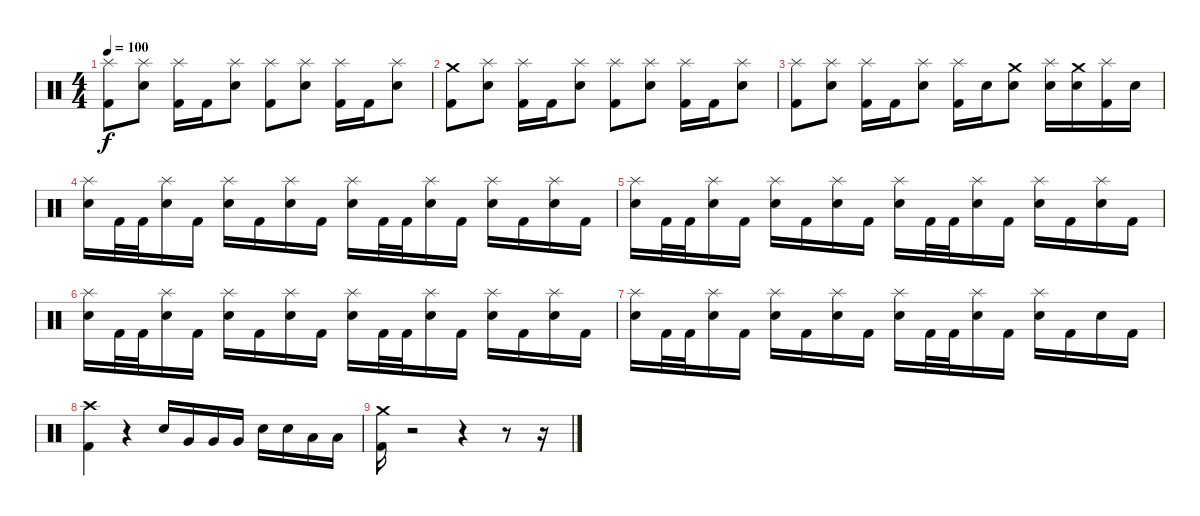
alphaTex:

\track "" {instrument percussion}
\staff {score}
\articulation defaults
\ts (4 4)
\tempo 100
\clef neutral
\ks c
("Splash (hit)" "Kick (hit) 2").8{dy f} ("Splash (hit)" "Snare (hit) 2").8 ("Splash (hit)" "Kick (hit) 2").16 "Kick (hit) 2".16 ("Splash (hit)" "Snare (hit) 2").8 ("Splash (hit)" "Kick (hit) 2").8 ("Splash (hit)" "Snare (hit) 2").8 ("Splash (hit)" "Kick (hit) 2").16 "Kick (hit) 2".16 ("Splash (hit)" "Snare (hit) 2").8 |
("Crash medium (hit)" "Kick (hit) 2").8 ("Splash (hit)" "Snare (hit) 2").8 ("Splash (hit)" "Kick (hit) 2").16 "Kick (hit) 2".16 ("Splash (hit)" "Snare (hit) 2").8 ("Splash (hit)" "Kick (hit) 2").8 ("Splash (hit)" "Snare (hit) 2").8 ("Splash (hit)" "Kick (hit) 2").16 "Kick (hit) 2".16 ("Splash (hit)" "Snare (hit) 2").8 |
("Splash (hit)" "Kick (hit) 2").8 ("Splash (hit)" "Snare (hit) 2").8 ("Splash (hit)" "Kick (hit) 2").16 "Kick (hit) 2".16 ("Splash (hit)" "Snare (hit) 2").8 ("Splash (hit)" "Kick (hit) 2").16 "Snare (hit) 2".16 ("Crash medium (hit)" "Snare (hit) 2").8 ("Splash (hit)" "Snare (hit) 2").16 ("Crash medium (hit)" "Snare (hit) 2").16 ("Splash (hit)" "Kick (hit) 2").16 "Snare (hit) 2".16 |
("Splash (hit)" "Snare (hit) 2").16 "Kick (hit) 2".32 "Kick (hit) 2".32 ("Splash (hit)" "Snare (hit) 2").16 "Kick (hit) 2".16 ("Splash (hit)" "Snare (hit) 2").16 "Kick (hit) 2".16 ("Splash (hit)" "Snare (hit) 2").16 "Kick (hit) 2".16 ("Splash (hit)" "Snare (hit) 2").16 "Kick (hit) 2".32 "Kick (hit) 2".32 ("Splash (hit)" "Snare (hit) 2").16 "Kick (hit) 2".16 ("Splash (hit)" "Snare (hit) 2").16 "Kick (hit) 2".16 ("Splash (hit)" "Snare (hit) 2").16 "Kick (hit) 2".16 |
("Splash (hit)" "Snare (hit) 2").16 "Kick (hit) 2".32 "Kick (hit) 2".32 ("Splash (hit)" "Snare (hit) 2").16 "Kick (hit) 2".16 ("Splash (hit)" "Snare (hit) 2").16 "Kick (hit) 2".16 ("Splash (hit)" "Snare (hit) 2").16 "Kick (hit) 2".16 ("Splash (hit)" "Snare (hit) 2").16 "Kick (hit) 2".32 "Kick (hit) 2".32 ("Splash (hit)" "Snare (hit) 2").16 "Kick (hit) 2".16 ("Splash (hit)" "Snare (hit) 2").16 "Kick (hit) 2".16 ("Splash (hit)" "Snare (hit) 2").16 "Kick (hit) 2".16 |
("Splash (hit)" "Snare (hit) 2").16 "Kick (hit) 2".32 "Kick (hit) 2".32 ("Splash (hit)" "Snare (hit) 2").16 "Kick (hit) 2".16 ("Splash (hit)" "Snare (hit) 2").16 "Kick (hit) 2".16 ("Splash (hit)" "Snare (hit) 2").16 "Kick (hit) 2".16 ("Splash (hit)" "Snare (hit) 2").16 "Kick (hit) 2".32 "Kick (hit) 2".32 ("Splash (hit)" "Snare (hit) 2").16 "Kick (hit) 2".16 ("Splash (hit)" "Snare (hit) 2").16 "Kick (hit) 2".16 ("Splash (hit)" "Snare (hit) 2").16 "Kick (hit) 2".16 |
("Splash (hit)" "Snare (hit) 2").16 "Kick (hit) 2".32 "Kick (hit) 2".32 ("Splash (hit)" "Snare (hit) 2").16 "Kick (hit) 2".16 ("Splash (hit)" "Snare (hit) 2").16 "Kick (hit) 2".16 ("Splash (hit)" "Snare (hit) 2").16 "Kick (hit) 2".16 ("Splash (hit)" "Snare (hit) 2").16 "Kick (hit) 2".32 "Kick (hit) 2".32 ("Splash (hit)" "Snare (hit) 2").16 "Kick (hit) 2".16 ("Splash (hit)" "Snare (hit) 2").16 "Kick (hit) 2".16 "Snare (hit) 2".16 "Kick (hit) 2".16 |
("Crash high (hit)" "Kick (hit) 2").4 r.4 "Electric Snare (hit)".16 "Very Low Tom (hit)".16 "Very Low Tom (hit)".16 "Very Low Tom (hit)".16 "Snare (hit) 2".16 "Snare (hit) 2".16 "Low Tom (hit)".16 "Low Tom (hit)".16 |
("Crash medium (hit)" "Kick (hit) 2").16 r.2 r.4 r.8 r.16
